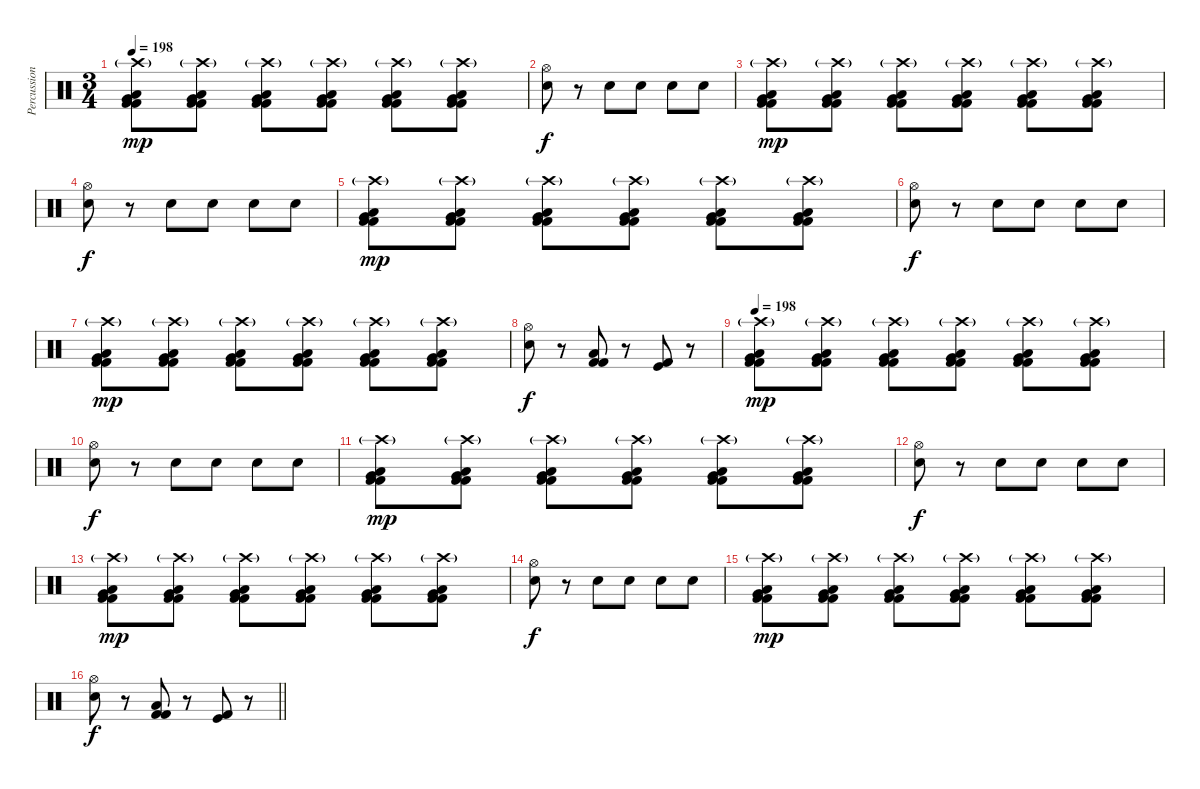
\track ("Percussions" "Percussion") {instrument percussion}
\staff {score}
\articulation defaults
\ts (3 4)
\tempo 198
\clef neutral
\ks c
("Low Floor Tom (hit)" "Kick (hit) 2" "Kick (hit) 2" "Very Low Tom (hit)" "Crash high (hit)"{g}).8{dy mp} ("Low Floor Tom (hit)" "Kick (hit) 2" "Kick (hit) 2" "Very Low Tom (hit)" "Crash high (hit)"{g}).8 ("Low Floor Tom (hit)" "Kick (hit) 2" "Kick (hit) 2" "Very Low Tom (hit)" "Crash high (hit)"{g}).8 ("Low Floor Tom (hit)" "Kick (hit) 2" "Kick (hit) 2" "Very Low Tom (hit)" "Crash high (hit)"{g}).8 ("Low Floor Tom (hit)" "Kick (hit) 2" "Kick (hit) 2" "Very Low Tom (hit)" "Crash high (hit)"{g}).8 ("Low Floor Tom (hit)" "Kick (hit) 2" "Kick (hit) 2" "Very Low Tom (hit)" "Crash high (hit)"{g}).8 |
("Electric Snare (hit)" "Hi-Hat (open)").8{dy f} r.8 "Electric Snare (hit)".8 "Electric Snare (hit)".8 "Electric Snare (hit)".8 "Electric Snare (hit)".8 |
("Low Floor Tom (hit)" "Kick (hit) 2" "Kick (hit) 2" "Very Low Tom (hit)" "Crash high (hit)"{g}).8{dy mp} ("Low Floor Tom (hit)" "Kick (hit) 2" "Kick (hit) 2" "Very Low Tom (hit)" "Crash high (hit)"{g}).8 ("Low Floor Tom (hit)" "Kick (hit) 2" "Kick (hit) 2" "Very Low Tom (hit)" "Crash high (hit)"{g}).8 ("Low Floor Tom (hit)" "Kick (hit) 2" "Kick (hit) 2" "Very Low Tom (hit)" "Crash high (hit)"{g}).8 ("Low Floor Tom (hit)" "Kick (hit) 2" "Kick (hit) 2" "Very Low Tom (hit)" "Crash high (hit)"{g}).8 ("Low Floor Tom (hit)" "Kick (hit) 2" "Kick (hit) 2" "Very Low Tom (hit)" "Crash high (hit)"{g}).8 |
("Electric Snare (hit)" "Hi-Hat (open)").8{dy f} r.8 "Electric Snare (hit)".8 "Electric Snare (hit)".8 "Electric Snare (hit)".8 "Electric Snare (hit)".8 |
("Low Floor Tom (hit)" "Kick (hit) 2" "Kick (hit) 2" "Very Low Tom (hit)" "Crash high (hit)"{g}).8{dy mp} ("Low Floor Tom (hit)" "Kick (hit) 2" "Kick (hit) 2" "Very Low Tom (hit)" "Crash high (hit)"{g}).8 ("Low Floor Tom (hit)" "Kick (hit) 2" "Kick (hit) 2" "Very Low Tom (hit)" "Crash high (hit)"{g}).8 ("Low Floor Tom (hit)" "Kick (hit) 2" "Kick (hit) 2" "Very Low Tom (hit)" "Crash high (hit)"{g}).8 ("Low Floor Tom (hit)" "Kick (hit) 2" "Kick (hit) 2" "Very Low Tom (hit)" "Crash high (hit)"{g}).8 ("Low Floor Tom (hit)" "Kick (hit) 2" "Kick (hit) 2" "Very Low Tom (hit)" "Crash high (hit)"{g}).8 |
("Electric Snare (hit)" "Hi-Hat (open)").8{dy f} r.8 "Electric Snare (hit)".8 "Electric Snare (hit)".8 "Electric Snare (hit)".8 "Electric Snare (hit)".8 |
("Low Floor Tom (hit)" "Kick (hit) 2" "Kick (hit) 2" "Very Low Tom (hit)" "Crash high (hit)"{g}).8{dy mp} ("Low Floor Tom (hit)" "Kick (hit) 2" "Kick (hit) 2" "Very Low Tom (hit)" "Crash high (hit)"{g}).8 ("Low Floor Tom (hit)" "Kick (hit) 2" "Kick (hit) 2" "Very Low Tom (hit)" "Crash high (hit)"{g}).8 ("Low Floor Tom (hit)" "Kick (hit) 2" "Kick (hit) 2" "Very Low Tom (hit)" "Crash high (hit)"{g}).8 ("Low Floor Tom (hit)" "Kick (hit) 2" "Kick (hit) 2" "Very Low Tom (hit)" "Crash high (hit)"{g}).8 ("Low Floor Tom (hit)" "Kick (hit) 2" "Kick (hit) 2" "Very Low Tom (hit)" "Crash high (hit)"{g}).8 |
("Electric Snare (hit)" "Hi-Hat (open)").8{dy f} r.8 ("Low Floor Tom (hit)" "Kick (hit) 2" "Kick (hit) 2").8 r.8 ("Kick (hit)" "Kick (hit) 2").8 r.8 |
\tempo 198
("Low Floor Tom (hit)" "Kick (hit) 2" "Kick (hit) 2" "Very Low Tom (hit)" "Crash high (hit)"{g}).8{dy mp} ("Low Floor Tom (hit)" "Kick (hit) 2" "Kick (hit) 2" "Very Low Tom (hit)" "Crash high (hit)"{g}).8 ("Low Floor Tom (hit)" "Kick (hit) 2" "Kick (hit) 2" "Very Low Tom (hit)" "Crash high (hit)"{g}).8 ("Low Floor Tom (hit)" "Kick (hit) 2" "Kick (hit) 2" "Very Low Tom (hit)" "Crash high (hit)"{g}).8 ("Low Floor Tom (hit)" "Kick (hit) 2" "Kick (hit) 2" "Very Low Tom (hit)" "Crash high (hit)"{g}).8 ("Low Floor Tom (hit)" "Kick (hit) 2" "Kick (hit) 2" "Very Low Tom (hit)" "Crash high (hit)"{g}).8 |
("Electric Snare (hit)" "Hi-Hat (open)").8{dy f} r.8 "Electric Snare (hit)".8 "Electric Snare (hit)".8 "Electric Snare (hit)".8 "Electric Snare (hit)".8 |
("Low Floor Tom (hit)" "Kick (hit) 2" "Kick (hit) 2" "Very Low Tom (hit)" "Crash high (hit)"{g}).8{dy mp} ("Low Floor Tom (hit)" "Kick (hit) 2" "Kick (hit) 2" "Very Low Tom (hit)" "Crash high (hit)"{g}).8 ("Low Floor Tom (hit)" "Kick (hit) 2" "Kick (hit) 2" "Very Low Tom (hit)" "Crash high (hit)"{g}).8 ("Low Floor Tom (hit)" "Kick (hit) 2" "Kick (hit) 2" "Very Low Tom (hit)" "Crash high (hit)"{g}).8 ("Low Floor Tom (hit)" "Kick (hit) 2" "Kick (hit) 2" "Very Low Tom (hit)" "Crash high (hit)"{g}).8 ("Low Floor Tom (hit)" "Kick (hit) 2" "Kick (hit) 2" "Very Low Tom (hit)" "Crash high (hit)"{g}).8 |
("Electric Snare (hit)" "Hi-Hat (open)").8{dy f} r.8 "Electric Snare (hit)".8 "Electric Snare (hit)".8 "Electric Snare (hit)".8 "Electric Snare (hit)".8 |
("Low Floor Tom (hit)" "Kick (hit) 2" "Kick (hit) 2" "Very Low Tom (hit)" "Crash high (hit)"{g}).8{dy mp} ("Low Floor Tom (hit)" "Kick (hit) 2" "Kick (hit) 2" "Very Low Tom (hit)" "Crash high (hit)"{g}).8 ("Low Floor Tom (hit)" "Kick (hit) 2" "Kick (hit) 2" "Very Low Tom (hit)" "Crash high (hit)"{g}).8 ("Low Floor Tom (hit)" "Kick (hit) 2" "Kick (hit) 2" "Very Low Tom (hit)" "Crash high (hit)"{g}).8 ("Low Floor Tom (hit)" "Kick (hit) 2" "Kick (hit) 2" "Very Low Tom (hit)" "Crash high (hit)"{g}).8 ("Low Floor Tom (hit)" "Kick (hit) 2" "Kick (hit) 2" "Very Low Tom (hit)" "Crash high (hit)"{g}).8 |
("Electric Snare (hit)" "Hi-Hat (open)").8{dy f} r.8 "Electric Snare (hit)".8 "Electric Snare (hit)".8 "Electric Snare (hit)".8 "Electric Snare (hit)".8 |
("Low Floor Tom (hit)" "Kick (hit) 2" "Kick (hit) 2" "Very Low Tom (hit)" "Crash high (hit)"{g}).8{dy mp} ("Low Floor Tom (hit)" "Kick (hit) 2" "Kick (hit) 2" "Very Low Tom (hit)" "Crash high (hit)"{g}).8 ("Low Floor Tom (hit)" "Kick (hit) 2" "Kick (hit) 2" "Very Low Tom (hit)" "Crash high (hit)"{g}).8 ("Low Floor Tom (hit)" "Kick (hit) 2" "Kick (hit) 2" "Very Low Tom (hit)" "Crash high (hit)"{g}).8 ("Low Floor Tom (hit)" "Kick (hit) 2" "Kick (hit) 2" "Very Low Tom (hit)" "Crash high (hit)"{g}).8 ("Low Floor Tom (hit)" "Kick (hit) 2" "Kick (hit) 2" "Very Low Tom (hit)" "Crash high (hit)"{g}).8 |
\barLineRight lightlight
("Electric Snare (hit)" "Hi-Hat (open)").8{dy f} r.8 ("Low Floor Tom (hit)" "Kick (hit) 2" "Kick (hit) 2").8 r.8 ("Kick (hit)" "Kick (hit) 2").8 r.8
